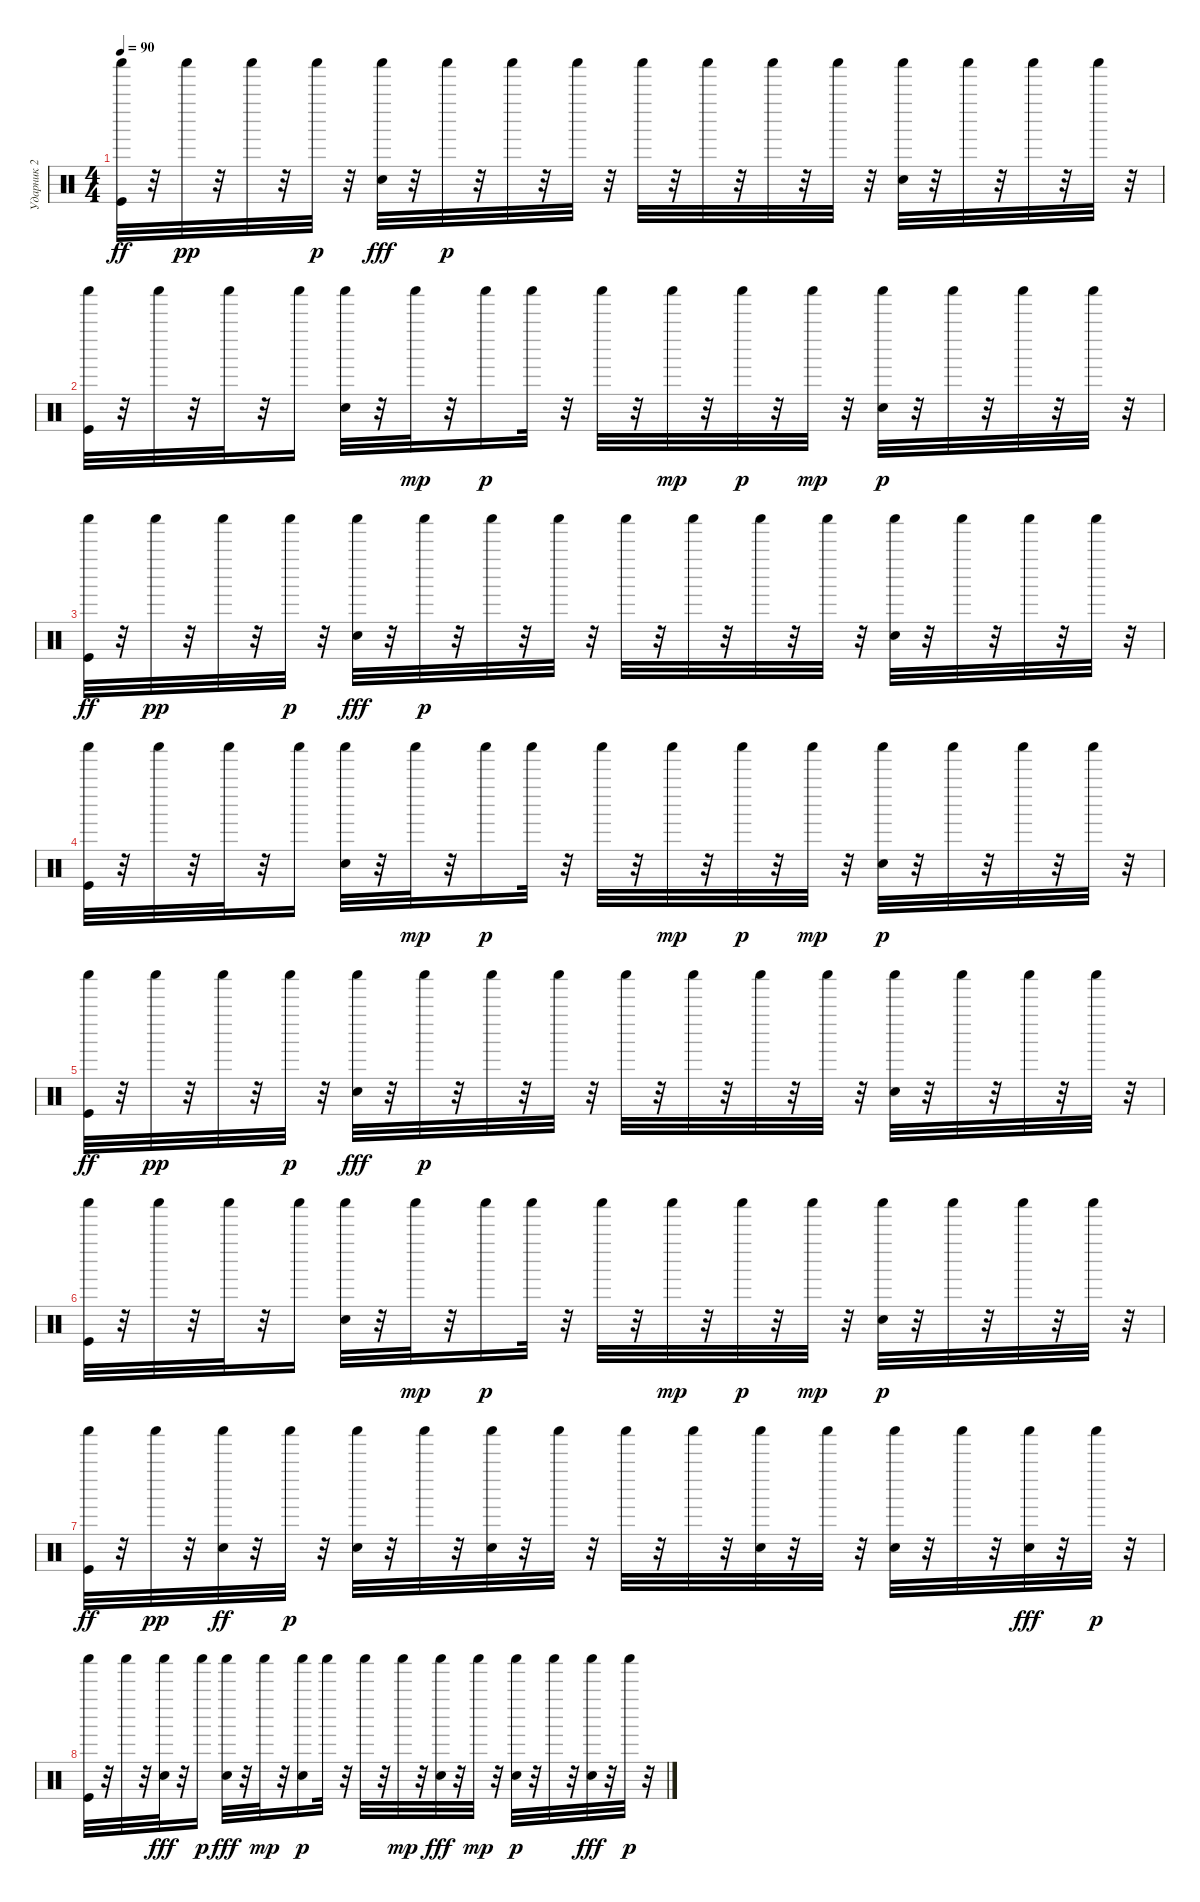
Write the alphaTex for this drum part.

\track ("Ударник 2" "Ударник 2") {instrument percussion}
\staff {score}
\articulation defaults
\ts (4 4)
\tempo 90
\clef neutral
\ks c
("Shaker (hit)" "Kick (hit)").32{dy ff} r.32 "Shaker (hit)".32{dy pp} r.32 "Shaker (hit)".32 r.32 "Shaker (hit)".32{dy p} r.32 ("Shaker (hit)" "Electric Snare (hit)").32{dy fff} r.32 "Shaker (hit)".32{dy p} r.32 "Shaker (hit)".32 r.32 "Shaker (hit)".32 r.32 "Shaker (hit)".32 r.32 "Shaker (hit)".32 r.32 "Shaker (hit)".32 r.32 "Shaker (hit)".32 r.32 ("Electric Snare (hit)" "Shaker (hit)").32 r.32 "Shaker (hit)".32 r.32 "Shaker (hit)".32 r.32 "Shaker (hit)".32 r.32 |
("Kick (hit)" "Shaker (hit)").32 r.32 "Shaker (hit)".32 r.32 "Shaker (hit)".32 r.32 "Shaker (hit)".16 ("Electric Snare (hit)" "Shaker (hit)").32 r.32 "Shaker (hit)".32{dy mp} r.32 "Shaker (hit)".16{dy p} "Shaker (hit)".32 r.32 "Shaker (hit)".32 r.32 "Shaker (hit)".32{dy mp} r.32 "Shaker (hit)".32{dy p} r.32 "Shaker (hit)".32{dy mp} r.32 ("Electric Snare (hit)" "Shaker (hit)").32{dy p} r.32 "Shaker (hit)".32 r.32 "Shaker (hit)".32 r.32 "Shaker (hit)".32 r.32 |
("Shaker (hit)" "Kick (hit)").32{dy ff} r.32 "Shaker (hit)".32{dy pp} r.32 "Shaker (hit)".32 r.32 "Shaker (hit)".32{dy p} r.32 ("Shaker (hit)" "Electric Snare (hit)").32{dy fff} r.32 "Shaker (hit)".32{dy p} r.32 "Shaker (hit)".32 r.32 "Shaker (hit)".32 r.32 "Shaker (hit)".32 r.32 "Shaker (hit)".32 r.32 "Shaker (hit)".32 r.32 "Shaker (hit)".32 r.32 ("Electric Snare (hit)" "Shaker (hit)").32 r.32 "Shaker (hit)".32 r.32 "Shaker (hit)".32 r.32 "Shaker (hit)".32 r.32 |
("Kick (hit)" "Shaker (hit)").32 r.32 "Shaker (hit)".32 r.32 "Shaker (hit)".32 r.32 "Shaker (hit)".16 ("Electric Snare (hit)" "Shaker (hit)").32 r.32 "Shaker (hit)".32{dy mp} r.32 "Shaker (hit)".16{dy p} "Shaker (hit)".32 r.32 "Shaker (hit)".32 r.32 "Shaker (hit)".32{dy mp} r.32 "Shaker (hit)".32{dy p} r.32 "Shaker (hit)".32{dy mp} r.32 ("Electric Snare (hit)" "Shaker (hit)").32{dy p} r.32 "Shaker (hit)".32 r.32 "Shaker (hit)".32 r.32 "Shaker (hit)".32 r.32 |
("Shaker (hit)" "Kick (hit)").32{dy ff} r.32 "Shaker (hit)".32{dy pp} r.32 "Shaker (hit)".32 r.32 "Shaker (hit)".32{dy p} r.32 ("Shaker (hit)" "Electric Snare (hit)").32{dy fff} r.32 "Shaker (hit)".32{dy p} r.32 "Shaker (hit)".32 r.32 "Shaker (hit)".32 r.32 "Shaker (hit)".32 r.32 "Shaker (hit)".32 r.32 "Shaker (hit)".32 r.32 "Shaker (hit)".32 r.32 ("Electric Snare (hit)" "Shaker (hit)").32 r.32 "Shaker (hit)".32 r.32 "Shaker (hit)".32 r.32 "Shaker (hit)".32 r.32 |
("Kick (hit)" "Shaker (hit)").32 r.32 "Shaker (hit)".32 r.32 "Shaker (hit)".32 r.32 "Shaker (hit)".16 ("Electric Snare (hit)" "Shaker (hit)").32 r.32 "Shaker (hit)".32{dy mp} r.32 "Shaker (hit)".16{dy p} "Shaker (hit)".32 r.32 "Shaker (hit)".32 r.32 "Shaker (hit)".32{dy mp} r.32 "Shaker (hit)".32{dy p} r.32 "Shaker (hit)".32{dy mp} r.32 ("Electric Snare (hit)" "Shaker (hit)").32{dy p} r.32 "Shaker (hit)".32 r.32 "Shaker (hit)".32 r.32 "Shaker (hit)".32 r.32 |
("Shaker (hit)" "Kick (hit)").32{dy ff} r.32 "Shaker (hit)".32{dy pp} r.32 ("Snare (hit)" "Shaker (hit)").32{dy ff} r.32 "Shaker (hit)".32{dy p} r.32 ("Electric Snare (hit)" "Shaker (hit)").32 r.32 "Shaker (hit)".32 r.32 ("Snare (hit)" "Shaker (hit)").32 r.32 "Shaker (hit)".32 r.32 "Shaker (hit)".32 r.32 "Shaker (hit)".32 r.32 ("Snare (hit)" "Shaker (hit)").32 r.32 "Shaker (hit)".32 r.32 ("Electric Snare (hit)" "Shaker (hit)").32 r.32 "Shaker (hit)".32 r.32 ("Shaker (hit)" "Snare (hit)").32{dy fff} r.32 "Shaker (hit)".32{dy p} r.32 |
("Kick (hit)" "Shaker (hit)").32 r.32 "Shaker (hit)".32 r.32 ("Shaker (hit)" "Snare (hit)").32{dy fff} r.32 "Shaker (hit)".16{dy p} ("Shaker (hit)" "Electric Snare (hit)").32{dy fff} r.32 "Shaker (hit)".32{dy mp} r.32 ("Snare (hit)" "Shaker (hit)").16{dy p} "Shaker (hit)".32 r.32 "Shaker (hit)".32 r.32 "Shaker (hit)".32{dy mp} r.32 ("Shaker (hit)" "Snare (hit)").32{dy fff} r.32 "Shaker (hit)".32{dy mp} r.32 ("Electric Snare (hit)" "Shaker (hit)").32{dy p} r.32 "Shaker (hit)".32 r.32 ("Shaker (hit)" "Snare (hit)").32{dy fff} r.32 "Shaker (hit)".32{dy p} r.32
